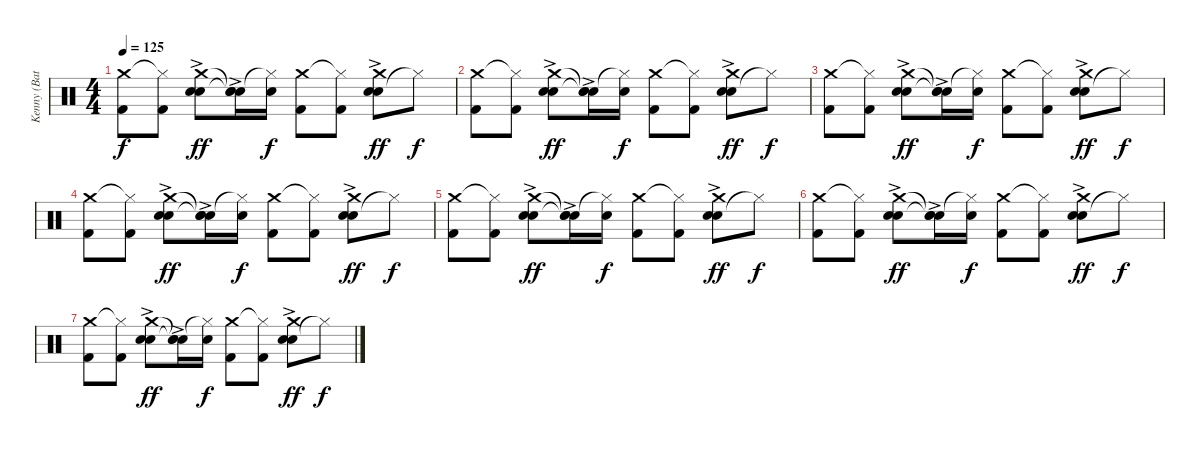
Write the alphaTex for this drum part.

\track ("Kenny (Batterie)" "Kenny (Bat") {instrument percussion}
\staff {score}
\articulation defaults
\ts (4 4)
\tempo 125
\clef neutral
\ks c
("Kick (hit) 2" "Crash medium (hit)").8{dy f} ("Kick (hit) 2" "Hi-Hat (closed)"{t}).8 ("Hand Clap (hit)"{ac} "Electric Snare (hit)" "Crash medium (hit)").8{dy ff} ("Hand Clap (hit)"{ac} "Snare (hit)"{t} "Snare (hit)"{t}).16 ("Electric Snare (hit)" "Hi-Hat (closed)"{t}).16{dy f} ("Kick (hit) 2" "Crash medium (hit)").8 ("Kick (hit) 2" "Hi-Hat (closed)"{t}).8 ("Hand Clap (hit)"{ac} "Electric Snare (hit)" "Crash medium (hit)").8{dy ff} "Hi-Hat (closed)"{t}.8{dy f} |
("Kick (hit) 2" "Crash medium (hit)").8 ("Kick (hit) 2" "Hi-Hat (closed)"{t}).8 ("Hand Clap (hit)"{ac} "Electric Snare (hit)" "Crash medium (hit)").8{dy ff} ("Hand Clap (hit)"{ac} "Snare (hit)"{t} "Snare (hit)"{t}).16 ("Electric Snare (hit)" "Hi-Hat (closed)"{t}).16{dy f} ("Kick (hit) 2" "Crash medium (hit)").8 ("Kick (hit) 2" "Hi-Hat (closed)"{t}).8 ("Hand Clap (hit)"{ac} "Electric Snare (hit)" "Crash medium (hit)").8{dy ff} "Hi-Hat (closed)"{t}.8{dy f} |
("Kick (hit) 2" "Crash medium (hit)").8 ("Kick (hit) 2" "Hi-Hat (closed)"{t}).8 ("Hand Clap (hit)"{ac} "Electric Snare (hit)" "Crash medium (hit)").8{dy ff} ("Hand Clap (hit)"{ac} "Snare (hit)"{t} "Snare (hit)"{t}).16 ("Electric Snare (hit)" "Hi-Hat (closed)"{t}).16{dy f} ("Kick (hit) 2" "Crash medium (hit)").8 ("Kick (hit) 2" "Hi-Hat (closed)"{t}).8 ("Hand Clap (hit)"{ac} "Electric Snare (hit)" "Crash medium (hit)").8{dy ff} "Hi-Hat (closed)"{t}.8{dy f} |
("Kick (hit) 2" "Crash medium (hit)").8 ("Kick (hit) 2" "Hi-Hat (closed)"{t}).8 ("Hand Clap (hit)"{ac} "Electric Snare (hit)" "Crash medium (hit)").8{dy ff} ("Hand Clap (hit)"{ac} "Snare (hit)"{t} "Snare (hit)"{t}).16 ("Electric Snare (hit)" "Hi-Hat (closed)"{t}).16{dy f} ("Kick (hit) 2" "Crash medium (hit)").8 ("Kick (hit) 2" "Hi-Hat (closed)"{t}).8 ("Hand Clap (hit)"{ac} "Electric Snare (hit)" "Crash medium (hit)").8{dy ff} "Hi-Hat (closed)"{t}.8{dy f} |
("Kick (hit) 2" "Crash medium (hit)").8 ("Kick (hit) 2" "Hi-Hat (closed)"{t}).8 ("Hand Clap (hit)"{ac} "Electric Snare (hit)" "Crash medium (hit)").8{dy ff} ("Hand Clap (hit)"{ac} "Snare (hit)"{t} "Snare (hit)"{t}).16 ("Electric Snare (hit)" "Hi-Hat (closed)"{t}).16{dy f} ("Kick (hit) 2" "Crash medium (hit)").8 ("Kick (hit) 2" "Hi-Hat (closed)"{t}).8 ("Hand Clap (hit)"{ac} "Electric Snare (hit)" "Crash medium (hit)").8{dy ff} "Hi-Hat (closed)"{t}.8{dy f} |
("Kick (hit) 2" "Crash medium (hit)").8 ("Kick (hit) 2" "Hi-Hat (closed)"{t}).8 ("Hand Clap (hit)"{ac} "Electric Snare (hit)" "Crash medium (hit)").8{dy ff} ("Hand Clap (hit)"{ac} "Snare (hit)"{t} "Snare (hit)"{t}).16 ("Electric Snare (hit)" "Hi-Hat (closed)"{t}).16{dy f} ("Kick (hit) 2" "Crash medium (hit)").8 ("Kick (hit) 2" "Hi-Hat (closed)"{t}).8 ("Hand Clap (hit)"{ac} "Electric Snare (hit)" "Crash medium (hit)").8{dy ff} "Hi-Hat (closed)"{t}.8{dy f} |
("Kick (hit) 2" "Crash medium (hit)").8 ("Kick (hit) 2" "Hi-Hat (closed)"{t}).8 ("Hand Clap (hit)"{ac} "Electric Snare (hit)" "Crash medium (hit)").8{dy ff} ("Hand Clap (hit)"{ac} "Snare (hit)"{t} "Snare (hit)"{t}).16 ("Electric Snare (hit)" "Hi-Hat (closed)"{t}).16{dy f} ("Kick (hit) 2" "Crash medium (hit)").8 ("Kick (hit) 2" "Hi-Hat (closed)"{t}).8 ("Hand Clap (hit)"{ac} "Electric Snare (hit)" "Crash medium (hit)").8{dy ff} "Hi-Hat (closed)"{t}.8{dy f}
